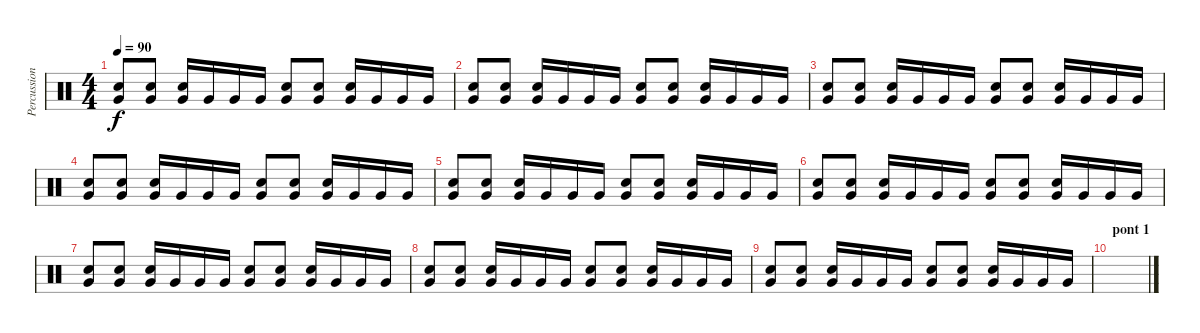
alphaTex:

\track ("Percussions" "Percussion") {instrument percussion}
\staff {score}
\articulation defaults
\ts (4 4)
\tempo 90
\clef neutral
\ks c
("Hand Clap (hit)" "Very Low Tom (hit)").8{dy f} ("Hand Clap (hit)" "Very Low Tom (hit)").8 ("Hand Clap (hit)" "Very Low Tom (hit)").16 "Very Low Tom (hit)".16 "Very Low Tom (hit)".16 "Very Low Tom (hit)".16 ("Hand Clap (hit)" "Very Low Tom (hit)").8 ("Hand Clap (hit)" "Very Low Tom (hit)").8 ("Hand Clap (hit)" "Very Low Tom (hit)").16 "Very Low Tom (hit)".16 "Very Low Tom (hit)".16 "Very Low Tom (hit)".16 |
("Hand Clap (hit)" "Very Low Tom (hit)").8 ("Hand Clap (hit)" "Very Low Tom (hit)").8 ("Hand Clap (hit)" "Very Low Tom (hit)").16 "Very Low Tom (hit)".16 "Very Low Tom (hit)".16 "Very Low Tom (hit)".16 ("Hand Clap (hit)" "Very Low Tom (hit)").8 ("Hand Clap (hit)" "Very Low Tom (hit)").8 ("Hand Clap (hit)" "Very Low Tom (hit)").16 "Very Low Tom (hit)".16 "Very Low Tom (hit)".16 "Very Low Tom (hit)".16 |
("Hand Clap (hit)" "Very Low Tom (hit)").8 ("Hand Clap (hit)" "Very Low Tom (hit)").8 ("Hand Clap (hit)" "Very Low Tom (hit)").16 "Very Low Tom (hit)".16 "Very Low Tom (hit)".16 "Very Low Tom (hit)".16 ("Hand Clap (hit)" "Very Low Tom (hit)").8 ("Hand Clap (hit)" "Very Low Tom (hit)").8 ("Hand Clap (hit)" "Very Low Tom (hit)").16 "Very Low Tom (hit)".16 "Very Low Tom (hit)".16 "Very Low Tom (hit)".16 |
("Hand Clap (hit)" "Very Low Tom (hit)").8 ("Hand Clap (hit)" "Very Low Tom (hit)").8 ("Hand Clap (hit)" "Very Low Tom (hit)").16 "Very Low Tom (hit)".16 "Very Low Tom (hit)".16 "Very Low Tom (hit)".16 ("Hand Clap (hit)" "Very Low Tom (hit)").8 ("Hand Clap (hit)" "Very Low Tom (hit)").8 ("Hand Clap (hit)" "Very Low Tom (hit)").16 "Very Low Tom (hit)".16 "Very Low Tom (hit)".16 "Very Low Tom (hit)".16 |
("Hand Clap (hit)" "Very Low Tom (hit)").8 ("Hand Clap (hit)" "Very Low Tom (hit)").8 ("Hand Clap (hit)" "Very Low Tom (hit)").16 "Very Low Tom (hit)".16 "Very Low Tom (hit)".16 "Very Low Tom (hit)".16 ("Hand Clap (hit)" "Very Low Tom (hit)").8 ("Hand Clap (hit)" "Very Low Tom (hit)").8 ("Hand Clap (hit)" "Very Low Tom (hit)").16 "Very Low Tom (hit)".16 "Very Low Tom (hit)".16 "Very Low Tom (hit)".16 |
("Hand Clap (hit)" "Very Low Tom (hit)").8 ("Hand Clap (hit)" "Very Low Tom (hit)").8 ("Hand Clap (hit)" "Very Low Tom (hit)").16 "Very Low Tom (hit)".16 "Very Low Tom (hit)".16 "Very Low Tom (hit)".16 ("Hand Clap (hit)" "Very Low Tom (hit)").8 ("Hand Clap (hit)" "Very Low Tom (hit)").8 ("Hand Clap (hit)" "Very Low Tom (hit)").16 "Very Low Tom (hit)".16 "Very Low Tom (hit)".16 "Very Low Tom (hit)".16 |
("Hand Clap (hit)" "Very Low Tom (hit)").8 ("Hand Clap (hit)" "Very Low Tom (hit)").8 ("Hand Clap (hit)" "Very Low Tom (hit)").16 "Very Low Tom (hit)".16 "Very Low Tom (hit)".16 "Very Low Tom (hit)".16 ("Hand Clap (hit)" "Very Low Tom (hit)").8 ("Hand Clap (hit)" "Very Low Tom (hit)").8 ("Hand Clap (hit)" "Very Low Tom (hit)").16 "Very Low Tom (hit)".16 "Very Low Tom (hit)".16 "Very Low Tom (hit)".16 |
("Hand Clap (hit)" "Very Low Tom (hit)").8 ("Hand Clap (hit)" "Very Low Tom (hit)").8 ("Hand Clap (hit)" "Very Low Tom (hit)").16 "Very Low Tom (hit)".16 "Very Low Tom (hit)".16 "Very Low Tom (hit)".16 ("Hand Clap (hit)" "Very Low Tom (hit)").8 ("Hand Clap (hit)" "Very Low Tom (hit)").8 ("Hand Clap (hit)" "Very Low Tom (hit)").16 "Very Low Tom (hit)".16 "Very Low Tom (hit)".16 "Very Low Tom (hit)".16 |
("Hand Clap (hit)" "Very Low Tom (hit)").8 ("Hand Clap (hit)" "Very Low Tom (hit)").8 ("Hand Clap (hit)" "Very Low Tom (hit)").16 "Very Low Tom (hit)".16 "Very Low Tom (hit)".16 "Very Low Tom (hit)".16 ("Hand Clap (hit)" "Very Low Tom (hit)").8 ("Hand Clap (hit)" "Very Low Tom (hit)").8 ("Hand Clap (hit)" "Very Low Tom (hit)").16 "Very Low Tom (hit)".16 "Very Low Tom (hit)".16 "Very Low Tom (hit)".16 |
\section ("" "pont 1")
